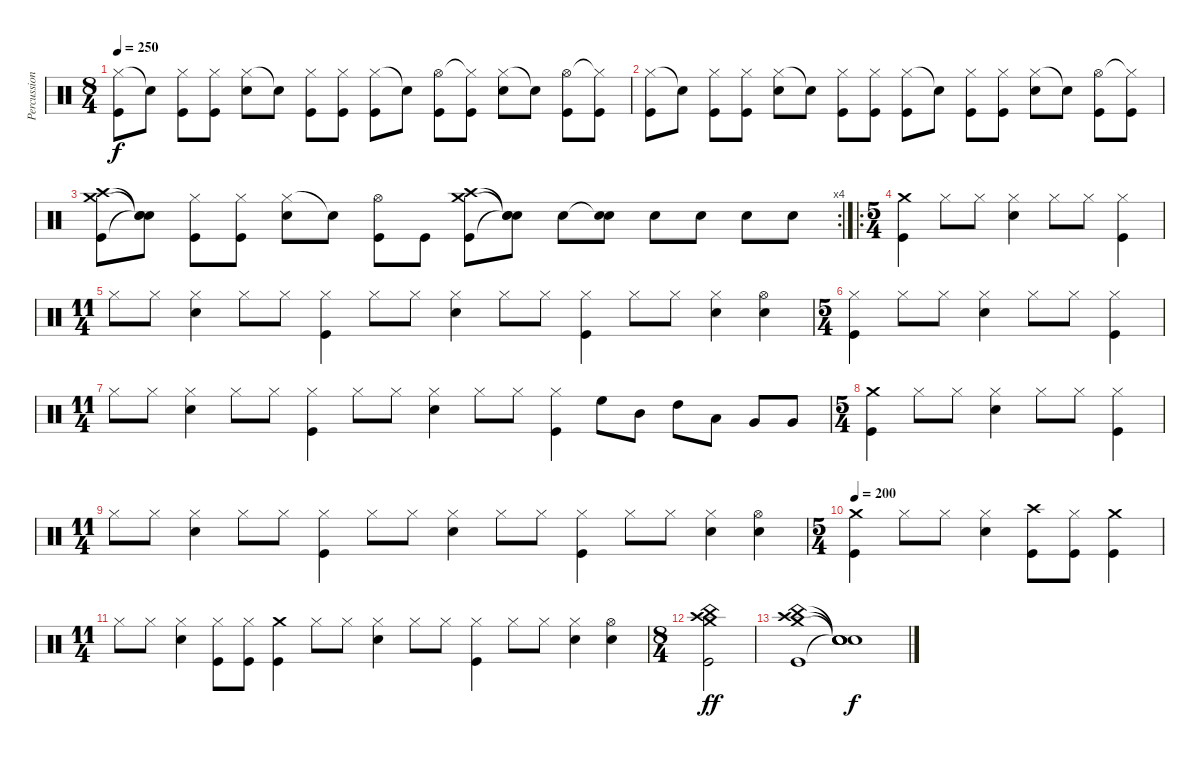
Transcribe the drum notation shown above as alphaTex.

\track ("Percussion" "Percussion") {instrument percussion}
\staff {score}
\articulation defaults
\ts (8 4)
\tempo 250
\clef neutral
\ks c
("Hi-Hat (closed)" "Kick (hit)").8{dy f} "Snare (hit)"{t}.8 ("Hi-Hat (closed)" "Kick (hit)").8 ("Hi-Hat (closed)" "Kick (hit)").8 ("Hi-Hat (closed)" "Snare (hit) 2").8 "Snare (hit)"{t}.8 ("Hi-Hat (closed)" "Kick (hit)").8 ("Hi-Hat (closed)" "Kick (hit)").8 ("Hi-Hat (closed)" "Kick (hit)").8 "Snare (hit)"{t}.8 ("Hi-Hat (open)" "Kick (hit)").8 ("Hi-Hat (closed)"{t} "Kick (hit)").8 ("Hi-Hat (closed)" "Snare (hit) 2").8 "Snare (hit)"{t}.8 ("Hi-Hat (open)" "Kick (hit)").8 ("Hi-Hat (closed)"{t} "Kick (hit)").8 |
("Hi-Hat (closed)" "Kick (hit)").8 "Snare (hit)"{t}.8 ("Hi-Hat (closed)" "Kick (hit)").8 ("Hi-Hat (closed)" "Kick (hit)").8 ("Hi-Hat (closed)" "Snare (hit) 2").8 "Snare (hit)"{t}.8 ("Hi-Hat (closed)" "Kick (hit)").8 ("Hi-Hat (closed)" "Kick (hit)").8 ("Hi-Hat (closed)" "Kick (hit)").8 "Snare (hit)"{t}.8 ("Hi-Hat (closed)" "Kick (hit)").8 ("Hi-Hat (closed)" "Kick (hit)").8 ("Hi-Hat (closed)" "Snare (hit) 2").8 "Snare (hit)"{t}.8 ("Hi-Hat (open)" "Kick (hit)").8 ("Hi-Hat (closed)"{t} "Kick (hit)").8 |
\rc 4
("Crash medium (hit)" "Crash high (hit)" "Kick (hit)").8 ("Snare (hit)"{t} "Snare (hit)"{t} "Snare (hit)"{t}).8 ("Hi-Hat (closed)" "Kick (hit)").8 ("Hi-Hat (closed)" "Kick (hit)").8 ("Hi-Hat (closed)" "Snare (hit) 2").8 "Snare (hit)"{t}.8 ("Hi-Hat (open)" "Kick (hit)").8 "Kick (hit)".8 ("Crash medium (hit)" "Crash high (hit)" "Kick (hit)").8 ("Snare (hit)"{t} "Snare (hit)"{t} "Snare (hit)"{t}).8 "Snare (hit) 2".8 ("Snare (hit)"{t} "Snare (hit) 2").8 "Snare (hit) 2".8 "Snare (hit) 2".8 "Snare (hit) 2".8 "Snare (hit) 2".8 |
\ro
\ts (5 4)
("Crash medium (hit)" "Kick (hit)").4 "Hi-Hat (closed)".8 "Hi-Hat (closed)".8 ("Hi-Hat (closed)" "Snare (hit) 2").4 "Hi-Hat (closed)".8 "Hi-Hat (closed)".8 ("Hi-Hat (closed)" "Kick (hit)").4 |
\ts (11 4)
"Hi-Hat (closed)".8 "Hi-Hat (closed)".8 ("Hi-Hat (closed)" "Snare (hit) 2").4 "Hi-Hat (closed)".8 "Hi-Hat (closed)".8 ("Hi-Hat (closed)" "Kick (hit)").4 "Hi-Hat (closed)".8 "Hi-Hat (closed)".8 ("Hi-Hat (closed)" "Snare (hit) 2").4 "Hi-Hat (closed)".8 "Hi-Hat (closed)".8 ("Hi-Hat (closed)" "Kick (hit)").4 "Hi-Hat (closed)".8 "Hi-Hat (closed)".8 ("Hi-Hat (closed)" "Snare (hit) 2").4 ("Hi-Hat (open)" "Snare (hit) 2").4 |
\ts (5 4)
("Hi-Hat (closed)" "Kick (hit)").4 "Hi-Hat (closed)".8 "Hi-Hat (closed)".8 ("Hi-Hat (closed)" "Snare (hit) 2").4 "Hi-Hat (closed)".8 "Hi-Hat (closed)".8 ("Hi-Hat (closed)" "Kick (hit)").4 |
\ts (11 4)
"Hi-Hat (closed)".8 "Hi-Hat (closed)".8 ("Hi-Hat (closed)" "Snare (hit) 2").4 "Hi-Hat (closed)".8 "Hi-Hat (closed)".8 ("Hi-Hat (closed)" "Kick (hit)").4 "Hi-Hat (closed)".8 "Hi-Hat (closed)".8 ("Hi-Hat (closed)" "Snare (hit) 2").4 "Hi-Hat (closed)".8 "Hi-Hat (closed)".8 ("Hi-Hat (closed)" "Kick (hit)").4 "High Floor Tom (hit)".8 "Mid Tom (hit)".8 "High Tom (hit)".8 "Low Tom (hit)".8 "Very Low Tom (hit)".8 "Very Low Tom (hit)".8 |
\ts (5 4)
("Crash medium (hit)" "Kick (hit)").4 "Hi-Hat (closed)".8 "Hi-Hat (closed)".8 ("Hi-Hat (closed)" "Snare (hit) 2").4 "Hi-Hat (closed)".8 "Hi-Hat (closed)".8 ("Hi-Hat (closed)" "Kick (hit)").4 |
\ts (11 4)
"Hi-Hat (closed)".8 "Hi-Hat (closed)".8 ("Hi-Hat (closed)" "Snare (hit) 2").4 "Hi-Hat (closed)".8 "Hi-Hat (closed)".8 ("Hi-Hat (closed)" "Kick (hit)").4 "Hi-Hat (closed)".8 "Hi-Hat (closed)".8 ("Hi-Hat (closed)" "Snare (hit) 2").4 "Hi-Hat (closed)".8 "Hi-Hat (closed)".8 ("Hi-Hat (closed)" "Kick (hit)").4 "Hi-Hat (closed)".8 "Hi-Hat (closed)".8 ("Hi-Hat (closed)" "Snare (hit) 2").4 ("Hi-Hat (open)" "Snare (hit) 2").4 |
\ts (5 4)
\tempo 200
("Crash medium (hit)" "Kick (hit)").4 "Hi-Hat (closed)".8 "Hi-Hat (closed)".8 ("Hi-Hat (closed)" "Snare (hit) 2").4 ("Crash high (hit)" "Kick (hit)").8 ("Hi-Hat (closed)" "Kick (hit)").8 ("Crash medium (hit)" "Kick (hit)").4 |
\ts (11 4)
"Hi-Hat (closed)".8 "Hi-Hat (closed)".8 ("Hi-Hat (closed)" "Snare (hit) 2").4 ("Hi-Hat (closed)" "Kick (hit)").8 ("Hi-Hat (closed)" "Kick (hit)").8 ("Crash medium (hit)" "Kick (hit)").4 "Hi-Hat (closed)".8 "Hi-Hat (closed)".8 ("Hi-Hat (closed)" "Snare (hit) 2").4 "Hi-Hat (closed)".8 "Hi-Hat (closed)".8 ("Hi-Hat (closed)" "Kick (hit)").4 "Hi-Hat (closed)".8 "Hi-Hat (closed)".8 ("Hi-Hat (closed)" "Snare (hit) 2").4 ("Hi-Hat (open)" "Snare (hit) 2").4 |
\ts (8 4)
("Crash medium (hit)" "China (hit)" "Crash high (hit)" "Kick (hit)").2{dy ff} |
("Crash medium (hit)" "China (hit)" "Crash high (hit)" "Kick (hit)").1 ("Snare (hit)"{t} "Snare (hit)"{t} "Snare (hit)"{t} "Snare (hit)"{t}).1{dy f}
